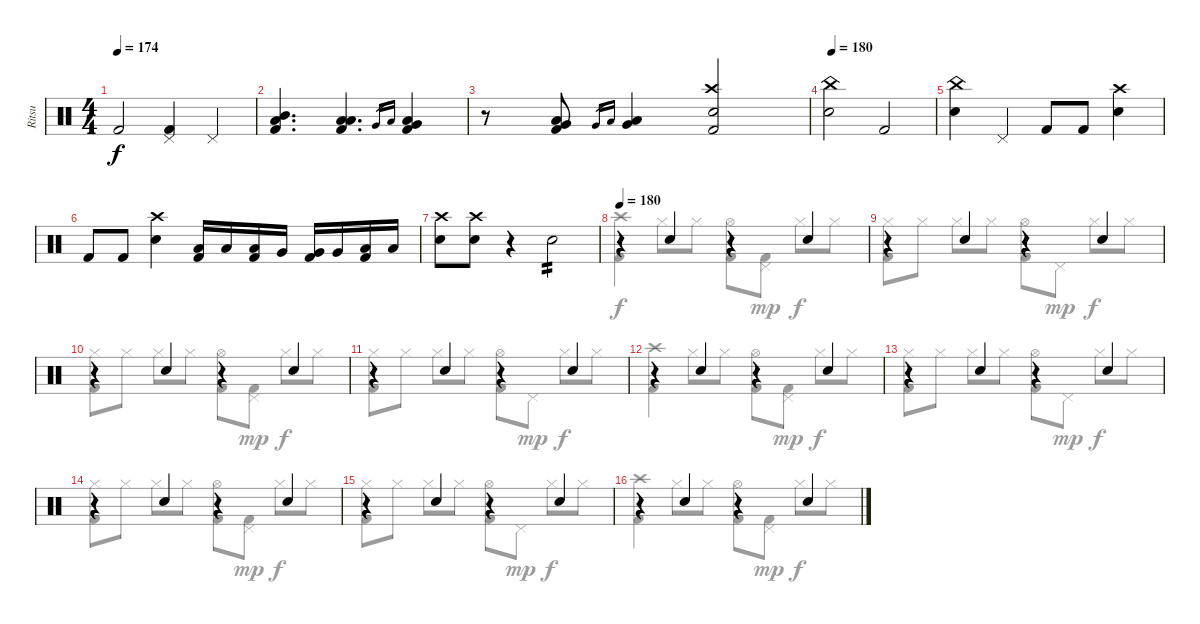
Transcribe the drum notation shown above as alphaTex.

\track ("Ritsu" "Ritsu") {instrument percussion}
\staff {score}
\articulation defaults
\voice
\ts (4 4)
\tempo 174
\clef neutral
\ks c "Kick (hit) 2".2{dy f}
("Pedal Hi-Hat (hit)" "Kick (hit) 2").4 "Pedal Hi-Hat (hit)".4 |
("Mid Tom (hit)" "Low Floor Tom (hit)" "Kick (hit) 2").4{d} ("Low Tom (hit)" "Low Floor Tom (hit)" "Kick (hit) 2").4{d} "Very Low Tom (hit)".16{gr} "Low Tom (hit)"{sl}.16{gr} ("Very Low Tom (hit)" "Low Tom (hit)" "Kick (hit) 2").4 |
r.8 ("Very Low Tom (hit)" "Low Floor Tom (hit)" "Kick (hit) 2").8 "Very Low Tom (hit)".16{gr} "Low Floor Tom (hit)".16{gr} ("Very Low Tom (hit)" "Low Floor Tom (hit)").4 ("Crash high (hit)" "Snare (hit) 2" "Kick (hit) 2").2 |
\tempo 180
("China (hit)" "Snare (hit) 2").2 "Kick (hit) 2".2 |
("China (hit)" "Snare (hit) 2").4 "Pedal Hi-Hat (hit)".4 "Kick (hit) 2".8 "Kick (hit) 2".8 ("Crash high (hit)" "Snare (hit) 2").4 |
"Kick (hit) 2".8 "Kick (hit) 2".8 ("Crash high (hit)" "Snare (hit) 2").4 ("Low Tom (hit)" "Kick (hit) 2").16 "Low Tom (hit)".16 ("Low Tom (hit)" "Kick (hit) 2").16 "Very Low Tom (hit)".16 ("Very Low Tom (hit)" "Kick (hit) 2").16 "Very Low Tom (hit)".16 ("Low Floor Tom (hit)" "Kick (hit) 2").16 "Low Floor Tom (hit)".16 |
("Crash high (hit)" "Snare (hit) 2").8 ("Crash high (hit)" "Snare (hit) 2").8 r.4 "Snare (hit) 2".2{tp 2} |
\tempo 180
r.4 "Snare (hit) 2".4 r.4 "Snare (hit) 2".4 |
r.4 "Snare (hit) 2".4 r.4 "Snare (hit) 2".4 |
r.4 "Snare (hit) 2".4 r.4 "Snare (hit) 2".4 |
r.4 "Snare (hit) 2".4 r.4 "Snare (hit) 2".4 |
r.4 "Snare (hit) 2".4 r.4 "Snare (hit) 2".4 |
r.4 "Snare (hit) 2".4 r.4 "Snare (hit) 2".4 |
r.4 "Snare (hit) 2".4 r.4 "Snare (hit) 2".4 |
r.4 "Snare (hit) 2".4 r.4 "Snare (hit) 2".4 |
r.4 "Snare (hit) 2".4 r.4 "Snare (hit) 2".4
\voice
\clef neutral
\ottava regular
\simile none
\ks c
|
|
|
|
|
|
|
("Crash high (hit)" "Kick (hit) 2").4 "Hi-Hat (closed)".8 "Hi-Hat (closed)".8 ("Hi-Hat (open)" "Kick (hit) 2").8 ("Pedal Hi-Hat (hit)" "Kick (hit) 2").8{dy mp} "Hi-Hat (closed)".8{dy f} "Hi-Hat (closed)".8 |
("Hi-Hat (closed)" "Kick (hit) 2").8 "Hi-Hat (closed)".8 "Hi-Hat (closed)".8 "Hi-Hat (closed)".8 ("Hi-Hat (open)" "Kick (hit) 2").8 "Pedal Hi-Hat (hit)".8{dy mp} "Hi-Hat (closed)".8{dy f} "Hi-Hat (closed)".8 |
("Hi-Hat (closed)" "Kick (hit) 2").8 "Hi-Hat (closed)".8 "Hi-Hat (closed)".8 "Hi-Hat (closed)".8 ("Hi-Hat (open)" "Kick (hit) 2").8 ("Pedal Hi-Hat (hit)" "Kick (hit) 2").8{dy mp} "Hi-Hat (closed)".8{dy f} "Hi-Hat (closed)".8 |
("Hi-Hat (closed)" "Kick (hit) 2").8 "Hi-Hat (closed)".8 "Hi-Hat (closed)".8 "Hi-Hat (closed)".8 ("Hi-Hat (open)" "Kick (hit) 2").8 "Pedal Hi-Hat (hit)".8{dy mp} "Hi-Hat (closed)".8{dy f} "Hi-Hat (closed)".8 |
("Crash high (hit)" "Kick (hit) 2").4 "Hi-Hat (closed)".8 "Hi-Hat (closed)".8 ("Hi-Hat (open)" "Kick (hit) 2").8 ("Pedal Hi-Hat (hit)" "Kick (hit) 2").8{dy mp} "Hi-Hat (closed)".8{dy f} "Hi-Hat (closed)".8 |
("Hi-Hat (closed)" "Kick (hit) 2").8 "Hi-Hat (closed)".8 "Hi-Hat (closed)".8 "Hi-Hat (closed)".8 ("Hi-Hat (open)" "Kick (hit) 2").8 "Pedal Hi-Hat (hit)".8{dy mp} "Hi-Hat (closed)".8{dy f} "Hi-Hat (closed)".8 |
("Hi-Hat (closed)" "Kick (hit) 2").8 "Hi-Hat (closed)".8 "Hi-Hat (closed)".8 "Hi-Hat (closed)".8 ("Hi-Hat (open)" "Kick (hit) 2").8 ("Pedal Hi-Hat (hit)" "Kick (hit) 2").8{dy mp} "Hi-Hat (closed)".8{dy f} "Hi-Hat (closed)".8 |
("Hi-Hat (closed)" "Kick (hit) 2").8 "Hi-Hat (closed)".8 "Hi-Hat (closed)".8 "Hi-Hat (closed)".8 ("Hi-Hat (open)" "Kick (hit) 2").8 "Pedal Hi-Hat (hit)".8{dy mp} "Hi-Hat (closed)".8{dy f} "Hi-Hat (closed)".8 |
("Crash high (hit)" "Kick (hit) 2").4 "Hi-Hat (closed)".8 "Hi-Hat (closed)".8 ("Hi-Hat (open)" "Kick (hit) 2").8 ("Pedal Hi-Hat (hit)" "Kick (hit) 2").8{dy mp} "Hi-Hat (closed)".8{dy f} "Hi-Hat (closed)".8
